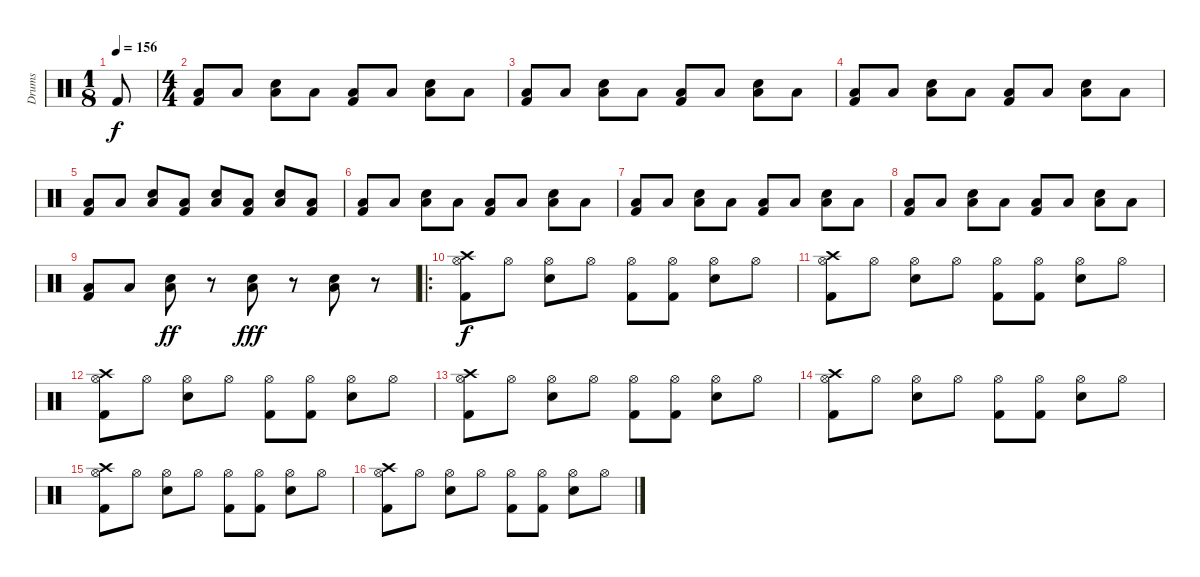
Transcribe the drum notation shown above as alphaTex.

\track ("Drums" "Drums") {instrument percussion}
\staff {score}
\articulation defaults
\ts (1 8)
\tempo 156
\clef neutral
\ks c "Kick (hit) 2".8{dy f}
|
\ts (4 4)
("Low Floor Tom (hit)" "Kick (hit) 2").8 "Low Floor Tom (hit)".8 ("Snare (hit) 2" "Low Floor Tom (hit)").8 "Low Floor Tom (hit)".8 ("Low Floor Tom (hit)" "Kick (hit) 2").8 "Low Floor Tom (hit)".8 ("Snare (hit) 2" "Low Floor Tom (hit)").8 "Low Floor Tom (hit)".8 |
("Low Floor Tom (hit)" "Kick (hit) 2").8 "Low Floor Tom (hit)".8 ("Snare (hit) 2" "Low Floor Tom (hit)").8 "Low Floor Tom (hit)".8 ("Low Floor Tom (hit)" "Kick (hit) 2").8 "Low Floor Tom (hit)".8 ("Snare (hit) 2" "Low Floor Tom (hit)").8 "Low Floor Tom (hit)".8 |
("Low Floor Tom (hit)" "Kick (hit) 2").8 "Low Floor Tom (hit)".8 ("Snare (hit) 2" "Low Floor Tom (hit)").8 "Low Floor Tom (hit)".8 ("Low Floor Tom (hit)" "Kick (hit) 2").8 "Low Floor Tom (hit)".8 ("Snare (hit) 2" "Low Floor Tom (hit)").8 "Low Floor Tom (hit)".8 |
("Low Floor Tom (hit)" "Kick (hit) 2").8 "Low Floor Tom (hit)".8 ("Snare (hit) 2" "Low Floor Tom (hit)").8 ("Low Floor Tom (hit)" "Kick (hit) 2").8 ("Snare (hit) 2" "Low Floor Tom (hit)").8 ("Low Floor Tom (hit)" "Kick (hit) 2").8 ("Snare (hit) 2" "Low Floor Tom (hit)").8 ("Low Floor Tom (hit)" "Kick (hit) 2").8 |
("Low Floor Tom (hit)" "Kick (hit) 2").8 "Low Floor Tom (hit)".8 ("Snare (hit) 2" "Low Floor Tom (hit)").8 "Low Floor Tom (hit)".8 ("Low Floor Tom (hit)" "Kick (hit) 2").8 "Low Floor Tom (hit)".8 ("Snare (hit) 2" "Low Floor Tom (hit)").8 "Low Floor Tom (hit)".8 |
("Low Floor Tom (hit)" "Kick (hit) 2").8 "Low Floor Tom (hit)".8 ("Snare (hit) 2" "Low Floor Tom (hit)").8 "Low Floor Tom (hit)".8 ("Low Floor Tom (hit)" "Kick (hit) 2").8 "Low Floor Tom (hit)".8 ("Snare (hit) 2" "Low Floor Tom (hit)").8 "Low Floor Tom (hit)".8 |
("Low Floor Tom (hit)" "Kick (hit) 2").8 "Low Floor Tom (hit)".8 ("Snare (hit) 2" "Low Floor Tom (hit)").8 "Low Floor Tom (hit)".8 ("Low Floor Tom (hit)" "Kick (hit) 2").8 "Low Floor Tom (hit)".8 ("Snare (hit) 2" "Low Floor Tom (hit)").8 "Low Floor Tom (hit)".8 |
("Low Floor Tom (hit)" "Kick (hit) 2").8 "Low Floor Tom (hit)".8 ("Snare (hit) 2" "Low Floor Tom (hit)").8{dy ff} r.8 ("Snare (hit) 2" "Low Floor Tom (hit)").8{dy fff} r.8 ("Snare (hit) 2" "Low Floor Tom (hit)").8 r.8 |
\ro
("Crash high (hit)" "Hi-Hat (open)" "Kick (hit) 2").8{dy f} "Hi-Hat (open)".8 ("Hi-Hat (open)" "Snare (hit) 2").8 "Hi-Hat (open)".8 ("Hi-Hat (open)" "Kick (hit) 2").8 ("Hi-Hat (open)" "Kick (hit) 2").8 ("Hi-Hat (open)" "Snare (hit) 2").8 "Hi-Hat (open)".8 |
("Crash high (hit)" "Hi-Hat (open)" "Kick (hit) 2").8 "Hi-Hat (open)".8 ("Hi-Hat (open)" "Snare (hit) 2").8 "Hi-Hat (open)".8 ("Hi-Hat (open)" "Kick (hit) 2").8 ("Hi-Hat (open)" "Kick (hit) 2").8 ("Hi-Hat (open)" "Snare (hit) 2").8 "Hi-Hat (open)".8 |
("Crash high (hit)" "Hi-Hat (open)" "Kick (hit) 2").8 "Hi-Hat (open)".8 ("Hi-Hat (open)" "Snare (hit) 2").8 "Hi-Hat (open)".8 ("Hi-Hat (open)" "Kick (hit) 2").8 ("Hi-Hat (open)" "Kick (hit) 2").8 ("Hi-Hat (open)" "Snare (hit) 2").8 "Hi-Hat (open)".8 |
("Crash high (hit)" "Hi-Hat (open)" "Kick (hit) 2").8 "Hi-Hat (open)".8 ("Hi-Hat (open)" "Snare (hit) 2").8 "Hi-Hat (open)".8 ("Hi-Hat (open)" "Kick (hit) 2").8 ("Hi-Hat (open)" "Kick (hit) 2").8 ("Hi-Hat (open)" "Snare (hit) 2").8 "Hi-Hat (open)".8 |
("Crash high (hit)" "Hi-Hat (open)" "Kick (hit) 2").8 "Hi-Hat (open)".8 ("Hi-Hat (open)" "Snare (hit) 2").8 "Hi-Hat (open)".8 ("Hi-Hat (open)" "Kick (hit) 2").8 ("Hi-Hat (open)" "Kick (hit) 2").8 ("Hi-Hat (open)" "Snare (hit) 2").8 "Hi-Hat (open)".8 |
("Crash high (hit)" "Hi-Hat (open)" "Kick (hit) 2").8 "Hi-Hat (open)".8 ("Hi-Hat (open)" "Snare (hit) 2").8 "Hi-Hat (open)".8 ("Hi-Hat (open)" "Kick (hit) 2").8 ("Hi-Hat (open)" "Kick (hit) 2").8 ("Hi-Hat (open)" "Snare (hit) 2").8 "Hi-Hat (open)".8 |
("Crash high (hit)" "Hi-Hat (open)" "Kick (hit) 2").8 "Hi-Hat (open)".8 ("Hi-Hat (open)" "Snare (hit) 2").8 "Hi-Hat (open)".8 ("Hi-Hat (open)" "Kick (hit) 2").8 ("Hi-Hat (open)" "Kick (hit) 2").8 ("Hi-Hat (open)" "Snare (hit) 2").8 "Hi-Hat (open)".8
